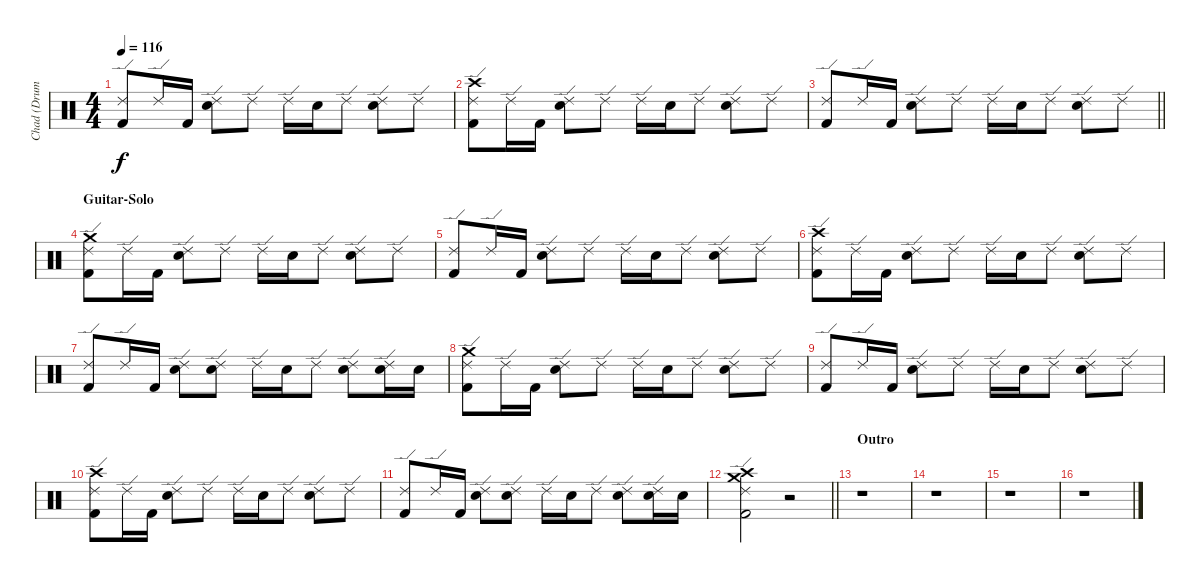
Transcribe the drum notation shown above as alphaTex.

\track ("Chad (Drums)" "Chad (Drum") {instrument percussion}
\staff {score}
\articulation defaults
\ts (4 4)
\tempo 116
\clef neutral
\ks c
("Ride (edge) 2" "Kick (hit) 2").8{dy f} "Ride (edge) 2".16 "Kick (hit) 2".16 ("Ride (edge) 2" "Snare (hit) 2").8 "Ride (edge) 2".8 "Ride (edge) 2".16 "Snare (hit) 2".16 "Ride (edge) 2".8 ("Ride (edge) 2" "Snare (hit) 2").8 "Ride (edge) 2".8 |
("Ride (edge) 2" "Crash high (hit)" "Kick (hit) 2").8 "Ride (edge) 2".16 "Kick (hit) 2".16 ("Ride (edge) 2" "Snare (hit) 2").8 "Ride (edge) 2".8 "Ride (edge) 2".16 "Snare (hit) 2".16 "Ride (edge) 2".8 ("Ride (edge) 2" "Snare (hit) 2").8 "Ride (edge) 2".8 |
\barLineRight lightlight
("Ride (edge) 2" "Kick (hit) 2").8 "Ride (edge) 2".16 "Kick (hit) 2".16 ("Ride (edge) 2" "Snare (hit) 2").8 "Ride (edge) 2".8 "Ride (edge) 2".16 "Snare (hit) 2".16 "Ride (edge) 2".8 ("Ride (edge) 2" "Snare (hit) 2").8 "Ride (edge) 2".8 |
\section ("" "Guitar-Solo")
("Ride (edge) 2" "Crash medium (hit)" "Kick (hit) 2").8 "Ride (edge) 2".16 "Kick (hit) 2".16 ("Ride (edge) 2" "Snare (hit) 2").8 "Ride (edge) 2".8 "Ride (edge) 2".16 "Snare (hit) 2".16 "Ride (edge) 2".8 ("Ride (edge) 2" "Snare (hit) 2").8 "Ride (edge) 2".8 |
("Ride (edge) 2" "Kick (hit) 2").8 "Ride (edge) 2".16 "Kick (hit) 2".16 ("Ride (edge) 2" "Snare (hit) 2").8 "Ride (edge) 2".8 "Ride (edge) 2".16 "Snare (hit) 2".16 "Ride (edge) 2".8 ("Ride (edge) 2" "Snare (hit) 2").8 "Ride (edge) 2".8 |
("Ride (edge) 2" "Crash high (hit)" "Kick (hit) 2").8 "Ride (edge) 2".16 "Kick (hit) 2".16 ("Ride (edge) 2" "Snare (hit) 2").8 "Ride (edge) 2".8 "Ride (edge) 2".16 "Snare (hit) 2".16 "Ride (edge) 2".8 ("Ride (edge) 2" "Snare (hit) 2").8 "Ride (edge) 2".8 |
("Ride (edge) 2" "Kick (hit) 2").8 "Ride (edge) 2".16 "Kick (hit) 2".16 ("Ride (edge) 2" "Snare (hit) 2").8 ("Ride (edge) 2" "Snare (hit) 2").8 "Ride (edge) 2".16 "Snare (hit) 2".16 "Ride (edge) 2".8 ("Ride (edge) 2" "Snare (hit) 2").8 ("Ride (edge) 2" "Snare (hit) 2").16 "Snare (hit) 2".16 |
("Ride (edge) 2" "Crash medium (hit)" "Kick (hit) 2").8 "Ride (edge) 2".16 "Kick (hit) 2".16 ("Ride (edge) 2" "Snare (hit) 2").8 "Ride (edge) 2".8 "Ride (edge) 2".16 "Snare (hit) 2".16 "Ride (edge) 2".8 ("Ride (edge) 2" "Snare (hit) 2").8 "Ride (edge) 2".8 |
("Ride (edge) 2" "Kick (hit) 2").8 "Ride (edge) 2".16 "Kick (hit) 2".16 ("Ride (edge) 2" "Snare (hit) 2").8 "Ride (edge) 2".8 "Ride (edge) 2".16 "Snare (hit) 2".16 "Ride (edge) 2".8 ("Ride (edge) 2" "Snare (hit) 2").8 "Ride (edge) 2".8 |
("Ride (edge) 2" "Crash high (hit)" "Kick (hit) 2").8 "Ride (edge) 2".16 "Kick (hit) 2".16 ("Ride (edge) 2" "Snare (hit) 2").8 "Ride (edge) 2".8 "Ride (edge) 2".16 "Snare (hit) 2".16 "Ride (edge) 2".8 ("Ride (edge) 2" "Snare (hit) 2").8 "Ride (edge) 2".8 |
("Ride (edge) 2" "Kick (hit) 2").8 "Ride (edge) 2".16 "Kick (hit) 2".16 ("Ride (edge) 2" "Snare (hit) 2").8 ("Ride (edge) 2" "Snare (hit) 2").8 "Ride (edge) 2".16 "Snare (hit) 2".16 "Ride (edge) 2".8 ("Ride (edge) 2" "Snare (hit) 2").8 ("Ride (edge) 2" "Snare (hit) 2").16 "Snare (hit) 2".16 |
\barLineRight lightlight
("Ride (edge) 2" "Crash medium (hit)" "Crash high (hit)" "Kick (hit) 2").2 r.2 |
\section ("" "Outro")
r.1 |
r.1 |
r.1 |
r.1
